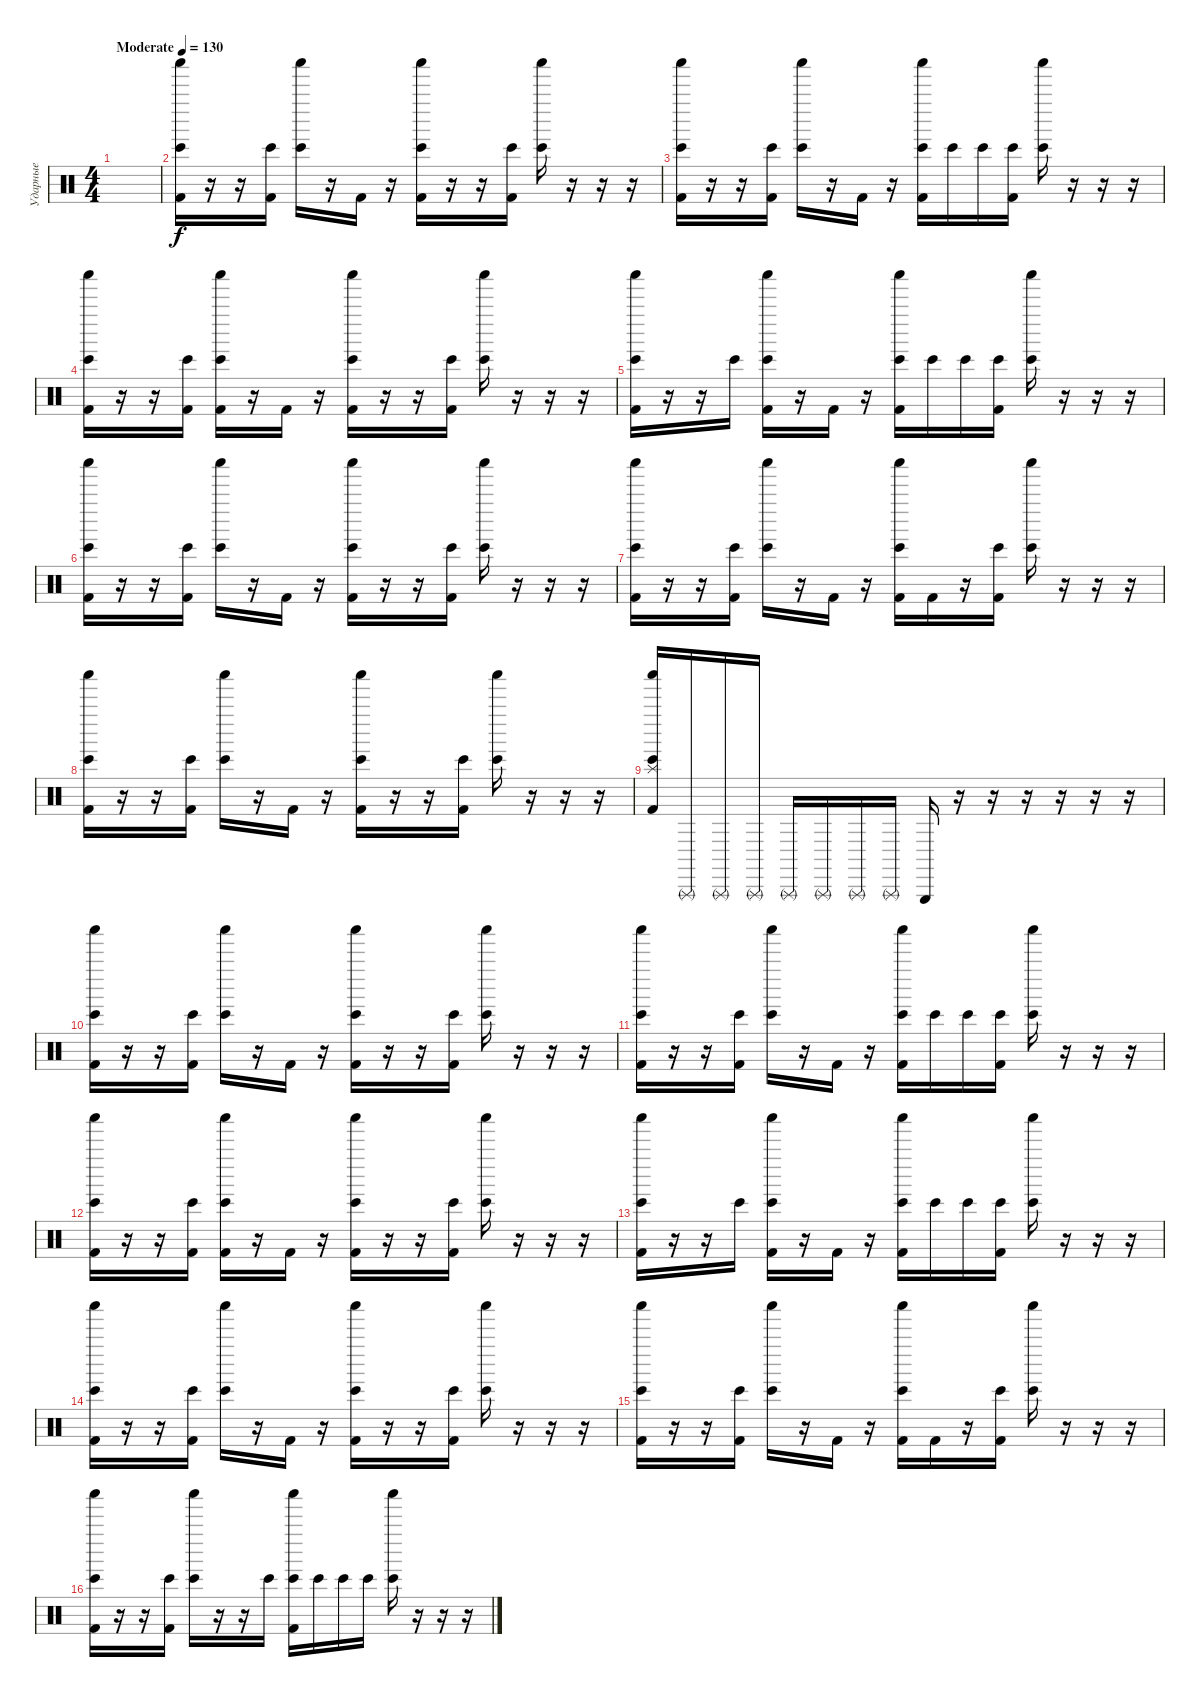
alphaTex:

\track ("Ударные" "Ударные") {instrument percussion}
\staff {score}
\articulation defaults
\ts (4 4)
\tempo (130 "Moderate")
\clef neutral
\ks c
|
("Bongo High (hit)" "Shaker (hit)" "Kick (hit) 2").16 r.16 r.16 ("Bongo High (hit)" "Kick (hit) 2").16 ("Bongo High (hit)" "Shaker (hit)").16 r.16 "Kick (hit) 2".16 r.16 ("Bongo High (hit)" "Shaker (hit)" "Kick (hit) 2").16 r.16 r.16 ("Bongo High (hit)" "Kick (hit) 2").16 ("Bongo High (hit)" "Shaker (hit)").16 r.16 r.16 r.16 |
("Bongo High (hit)" "Shaker (hit)" "Kick (hit) 2").16 r.16 r.16 ("Bongo High (hit)" "Kick (hit) 2").16 ("Bongo High (hit)" "Shaker (hit)").16 r.16 "Kick (hit) 2".16 r.16 ("Bongo High (hit)" "Shaker (hit)" "Kick (hit) 2").16 "Bongo High (hit)".16 "Bongo High (hit)".16 ("Bongo High (hit)" "Kick (hit) 2").16 ("Bongo High (hit)" "Shaker (hit)").16 r.16 r.16 r.16 |
("Bongo High (hit)" "Shaker (hit)" "Kick (hit) 2").16 r.16 r.16 ("Bongo High (hit)" "Kick (hit) 2").16 ("Bongo High (hit)" "Shaker (hit)" "Kick (hit) 2").16 r.16 "Kick (hit) 2".16 r.16 ("Bongo High (hit)" "Shaker (hit)" "Kick (hit) 2").16 r.16 r.16 ("Bongo High (hit)" "Kick (hit) 2").16 ("Bongo High (hit)" "Shaker (hit)").16 r.16 r.16 r.16 |
("Bongo High (hit)" "Shaker (hit)" "Kick (hit) 2").16 r.16 r.16 "Bongo High (hit)".16 ("Bongo High (hit)" "Shaker (hit)" "Kick (hit) 2").16 r.16 "Kick (hit) 2".16 r.16 ("Bongo High (hit)" "Shaker (hit)" "Kick (hit) 2").16 "Bongo High (hit)".16 "Bongo High (hit)".16 ("Bongo High (hit)" "Kick (hit) 2").16 ("Bongo High (hit)" "Shaker (hit)").16 r.16 r.16 r.16 |
("Bongo High (hit)" "Shaker (hit)" "Kick (hit) 2").16 r.16 r.16{volume 16} ("Bongo High (hit)" "Kick (hit) 2").16 ("Bongo High (hit)" "Shaker (hit)").16 r.16 "Kick (hit) 2".16 r.16 ("Bongo High (hit)" "Shaker (hit)" "Kick (hit) 2").16 r.16 r.16 ("Bongo High (hit)" "Kick (hit) 2").16 ("Bongo High (hit)" "Shaker (hit)").16 r.16 r.16 r.16 |
("Bongo High (hit)" "Shaker (hit)" "Kick (hit) 2").16 r.16 r.16 ("Bongo High (hit)" "Kick (hit) 2").16 ("Bongo High (hit)" "Shaker (hit)").16 r.16 "Kick (hit) 2".16 r.16 ("Bongo High (hit)" "Shaker (hit)" "Kick (hit) 2").16 "Kick (hit) 2".16 r.16 ("Bongo High (hit)" "Kick (hit) 2").16 ("Bongo High (hit)" "Shaker (hit)").16 r.16 r.16 r.16 |
("Bongo High (hit)" "Shaker (hit)" "Kick (hit) 2").16 r.16 r.16{volume 16} ("Bongo High (hit)" "Kick (hit) 2").16 ("Bongo High (hit)" "Shaker (hit)").16 r.16 "Kick (hit) 2".16 r.16 ("Bongo High (hit)" "Shaker (hit)" "Kick (hit) 2").16 r.16 r.16 ("Bongo High (hit)" "Kick (hit) 2").16 ("Bongo High (hit)" "Shaker (hit)").16 r.16 r.16 r.16 |
("Bongo High (hit)" "Splash (hit)" "Shaker (hit)" "Kick (hit) 2").16 "Triangle (rnute)".16 "Triangle (rnute)".16 "Triangle (rnute)".16 "Triangle (rnute)".16 "Triangle (rnute)".16 "Triangle (rnute)".16 "Triangle (rnute)".16 "Triangle (hit)".16 r.16 r.16 r.16 r.16 r.16 r.16 |
("Bongo High (hit)" "Shaker (hit)" "Kick (hit) 2").16 r.16 r.16 ("Bongo High (hit)" "Kick (hit) 2").16 ("Bongo High (hit)" "Shaker (hit)").16 r.16 "Kick (hit) 2".16 r.16 ("Bongo High (hit)" "Shaker (hit)" "Kick (hit) 2").16 r.16 r.16 ("Bongo High (hit)" "Kick (hit) 2").16 ("Bongo High (hit)" "Shaker (hit)").16 r.16 r.16 r.16 |
("Bongo High (hit)" "Shaker (hit)" "Kick (hit) 2").16 r.16 r.16 ("Bongo High (hit)" "Kick (hit) 2").16 ("Bongo High (hit)" "Shaker (hit)").16 r.16 "Kick (hit) 2".16 r.16 ("Bongo High (hit)" "Shaker (hit)" "Kick (hit) 2").16 "Bongo High (hit)".16 "Bongo High (hit)".16 ("Bongo High (hit)" "Kick (hit) 2").16 ("Bongo High (hit)" "Shaker (hit)").16 r.16 r.16 r.16 |
("Bongo High (hit)" "Shaker (hit)" "Kick (hit) 2").16 r.16 r.16 ("Bongo High (hit)" "Kick (hit) 2").16 ("Bongo High (hit)" "Shaker (hit)" "Kick (hit) 2").16 r.16 "Kick (hit) 2".16 r.16 ("Bongo High (hit)" "Shaker (hit)" "Kick (hit) 2").16 r.16 r.16 ("Bongo High (hit)" "Kick (hit) 2").16 ("Bongo High (hit)" "Shaker (hit)").16 r.16 r.16 r.16 |
("Bongo High (hit)" "Shaker (hit)" "Kick (hit) 2").16 r.16 r.16 "Bongo High (hit)".16 ("Bongo High (hit)" "Shaker (hit)" "Kick (hit) 2").16 r.16 "Kick (hit) 2".16 r.16 ("Bongo High (hit)" "Shaker (hit)" "Kick (hit) 2").16 "Bongo High (hit)".16 "Bongo High (hit)".16 ("Bongo High (hit)" "Kick (hit) 2").16 ("Bongo High (hit)" "Shaker (hit)").16 r.16 r.16 r.16 |
("Bongo High (hit)" "Shaker (hit)" "Kick (hit) 2").16 r.16 r.16{volume 16} ("Bongo High (hit)" "Kick (hit) 2").16 ("Bongo High (hit)" "Shaker (hit)").16 r.16 "Kick (hit) 2".16 r.16 ("Bongo High (hit)" "Shaker (hit)" "Kick (hit) 2").16 r.16 r.16 ("Bongo High (hit)" "Kick (hit) 2").16 ("Bongo High (hit)" "Shaker (hit)").16 r.16 r.16 r.16 |
("Bongo High (hit)" "Shaker (hit)" "Kick (hit) 2").16 r.16 r.16 ("Bongo High (hit)" "Kick (hit) 2").16 ("Bongo High (hit)" "Shaker (hit)").16 r.16 "Kick (hit) 2".16 r.16 ("Bongo High (hit)" "Shaker (hit)" "Kick (hit) 2").16 "Kick (hit) 2".16 r.16 ("Bongo High (hit)" "Kick (hit) 2").16 ("Bongo High (hit)" "Shaker (hit)").16 r.16 r.16 r.16 |
("Bongo High (hit)" "Shaker (hit)" "Kick (hit) 2").16 r.16 r.16{volume 16} ("Bongo High (hit)" "Kick (hit) 2").16 ("Bongo High (hit)" "Shaker (hit)").16 r.16 r.16 "Bongo High (hit)".16 ("Bongo High (hit)" "Shaker (hit)" "Kick (hit) 2").16 "Bongo High (hit)".16 "Bongo High (hit)".16 "Bongo High (hit)".16 ("Bongo High (hit)" "Shaker (hit)").16 r.16 r.16 r.16
